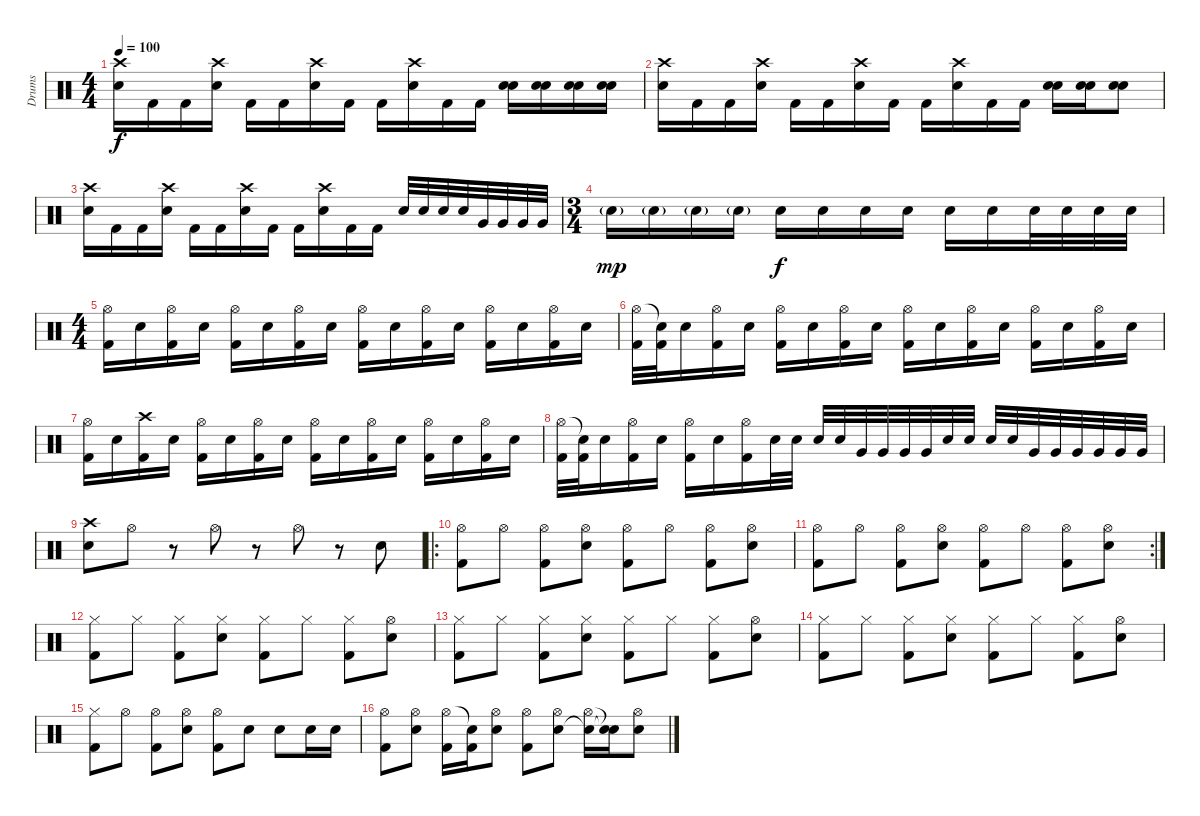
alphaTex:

\track ("Drums" "Drums") {instrument percussion}
\staff {score}
\articulation defaults
\ts (4 4)
\tempo 100
\clef neutral
\ks c
("Crash high (hit)" "Electric Snare (hit)").16{dy f} "Kick (hit) 2".16 "Kick (hit) 2".16 ("Crash high (hit)" "Electric Snare (hit)").16 "Kick (hit) 2".16 "Kick (hit) 2".16 ("Crash high (hit)" "Electric Snare (hit)").16 "Kick (hit) 2".16 "Kick (hit) 2".16 ("Crash high (hit)" "Electric Snare (hit)").16 "Kick (hit) 2".16 "Kick (hit) 2".16 ("Electric Snare (hit)" "Electric Snare (hit)").16 ("Electric Snare (hit)" "Electric Snare (hit)").16 ("Electric Snare (hit)" "Electric Snare (hit)").16 ("Electric Snare (hit)" "Electric Snare (hit)").16 |
("Crash high (hit)" "Electric Snare (hit)").16 "Kick (hit) 2".16 "Kick (hit) 2".16 ("Crash high (hit)" "Electric Snare (hit)").16 "Kick (hit) 2".16 "Kick (hit) 2".16 ("Crash high (hit)" "Electric Snare (hit)").16 "Kick (hit) 2".16 "Kick (hit) 2".16 ("Crash high (hit)" "Electric Snare (hit)").16 "Kick (hit) 2".16 "Kick (hit) 2".16 ("Electric Snare (hit)" "Electric Snare (hit)").16 ("Electric Snare (hit)" "Electric Snare (hit)").16 ("Electric Snare (hit)" "Electric Snare (hit)").8 |
("Crash high (hit)" "Electric Snare (hit)").16 "Kick (hit) 2".16 "Kick (hit) 2".16 ("Crash high (hit)" "Electric Snare (hit)").16 "Kick (hit) 2".16 "Kick (hit) 2".16 ("Crash high (hit)" "Electric Snare (hit)").16 "Kick (hit) 2".16 "Kick (hit) 2".16 ("Crash high (hit)" "Electric Snare (hit)").16 "Kick (hit) 2".16 "Kick (hit) 2".16 "Electric Snare (hit)".32 "Electric Snare (hit)".32 "Electric Snare (hit)".32 "Electric Snare (hit)".32 "Very Low Tom (hit)".32 "Very Low Tom (hit)".32 "Very Low Tom (hit)".32 "Very Low Tom (hit)".32 |
\ts (3 4)
"Electric Snare (hit)"{g}.16{dy mp} "Electric Snare (hit)"{g}.16 "Electric Snare (hit)"{g}.16 "Electric Snare (hit)"{g}.16 "Electric Snare (hit)".16{dy f} "Electric Snare (hit)".16 "Electric Snare (hit)".16 "Electric Snare (hit)".16 "Electric Snare (hit)".16 "Electric Snare (hit)".16 "Electric Snare (hit)".32 "Electric Snare (hit)".32 "Electric Snare (hit)".32 "Electric Snare (hit)".32 |
\ts (4 4)
("Hi-Hat (open)" "Kick (hit) 2").16 "Electric Snare (hit)".16 ("Hi-Hat (open)" "Kick (hit) 2").16 "Electric Snare (hit)".16 ("Hi-Hat (open)" "Kick (hit) 2").16 "Electric Snare (hit)".16 ("Hi-Hat (open)" "Kick (hit) 2").16 "Electric Snare (hit)".16 ("Hi-Hat (open)" "Kick (hit) 2").16 "Electric Snare (hit)".16 ("Hi-Hat (open)" "Kick (hit) 2").16 "Electric Snare (hit)".16 ("Hi-Hat (open)" "Kick (hit) 2").16 "Electric Snare (hit)".16 ("Hi-Hat (open)" "Kick (hit) 2").16 "Electric Snare (hit)".16 |
("Hi-Hat (open)" "Kick (hit) 2").32 ("Snare (hit)"{t} "Kick (hit) 2").32 "Electric Snare (hit)".16 ("Hi-Hat (open)" "Kick (hit) 2").16 "Electric Snare (hit)".16 ("Hi-Hat (open)" "Kick (hit) 2").16 "Electric Snare (hit)".16 ("Hi-Hat (open)" "Kick (hit) 2").16 "Electric Snare (hit)".16 ("Hi-Hat (open)" "Kick (hit) 2").16 "Electric Snare (hit)".16 ("Hi-Hat (open)" "Kick (hit) 2").16 "Electric Snare (hit)".16 ("Hi-Hat (open)" "Kick (hit) 2").16 "Electric Snare (hit)".16 ("Hi-Hat (open)" "Kick (hit) 2").16 "Electric Snare (hit)".16 |
("Hi-Hat (open)" "Kick (hit) 2").16 "Electric Snare (hit)".16 ("Crash high (hit)" "Kick (hit) 2").16 "Electric Snare (hit)".16 ("Hi-Hat (open)" "Kick (hit) 2").16 "Electric Snare (hit)".16 ("Hi-Hat (open)" "Kick (hit) 2").16 "Electric Snare (hit)".16 ("Hi-Hat (open)" "Kick (hit) 2").16 "Electric Snare (hit)".16 ("Hi-Hat (open)" "Kick (hit) 2").16 "Electric Snare (hit)".16 ("Hi-Hat (open)" "Kick (hit) 2").16 "Electric Snare (hit)".16 ("Hi-Hat (open)" "Kick (hit) 2").16 "Electric Snare (hit)".16 |
("Hi-Hat (open)" "Kick (hit) 2").32 ("Snare (hit)"{t} "Kick (hit) 2").32 "Electric Snare (hit)".16 ("Hi-Hat (open)" "Kick (hit) 2").16 "Electric Snare (hit)".16 ("Hi-Hat (open)" "Kick (hit) 2").16 "Electric Snare (hit)".16 ("Hi-Hat (open)" "Kick (hit) 2").16 "Electric Snare (hit)".32 "Electric Snare (hit)".32 "Electric Snare (hit)".32 "Electric Snare (hit)".32 "Very Low Tom (hit)".32 "Very Low Tom (hit)".32 "Very Low Tom (hit)".32 "Very Low Tom (hit)".32 "Electric Snare (hit)".32 "Electric Snare (hit)".32 "Electric Snare (hit)".32 "Electric Snare (hit)".32 "Very Low Tom (hit)".32 "Very Low Tom (hit)".32 "Very Low Tom (hit)".32 "Very Low Tom (hit)".32 "Very Low Tom (hit)".32 "Very Low Tom (hit)".32 |
("Crash high (hit)" "Electric Snare (hit)").8 "Hi-Hat (open)".8 r.8 "Hi-Hat (open)".8 r.8 "Hi-Hat (open)".8 r.8 "Electric Snare (hit)".8 |
\ro
("Hi-Hat (open)" "Kick (hit) 2").8 "Hi-Hat (open)".8 ("Hi-Hat (open)" "Kick (hit) 2").8 ("Hi-Hat (open)" "Electric Snare (hit)").8 ("Hi-Hat (open)" "Kick (hit) 2").8 "Hi-Hat (open)".8 ("Hi-Hat (open)" "Kick (hit) 2").8 ("Hi-Hat (open)" "Electric Snare (hit)").8 |
\rc 2
("Hi-Hat (open)" "Kick (hit) 2").8 "Hi-Hat (open)".8 ("Hi-Hat (open)" "Kick (hit) 2").8 ("Hi-Hat (open)" "Electric Snare (hit)").8 ("Hi-Hat (open)" "Kick (hit) 2").8 "Hi-Hat (open)".8 ("Hi-Hat (open)" "Kick (hit) 2").8 ("Hi-Hat (open)" "Electric Snare (hit)").8 |
("Hi-Hat (closed)" "Kick (hit) 2").8 "Hi-Hat (closed)".8 ("Hi-Hat (closed)" "Kick (hit) 2").8 ("Hi-Hat (closed)" "Electric Snare (hit)").8 ("Hi-Hat (closed)" "Kick (hit) 2").8 "Hi-Hat (closed)".8 ("Hi-Hat (closed)" "Kick (hit) 2").8 ("Hi-Hat (open)" "Electric Snare (hit)").8 |
("Hi-Hat (closed)" "Kick (hit) 2").8 "Hi-Hat (closed)".8 ("Hi-Hat (closed)" "Kick (hit) 2").8 ("Hi-Hat (closed)" "Electric Snare (hit)").8 ("Hi-Hat (closed)" "Kick (hit) 2").8 "Hi-Hat (closed)".8 ("Hi-Hat (closed)" "Kick (hit) 2").8 ("Hi-Hat (open)" "Electric Snare (hit)").8 |
("Hi-Hat (closed)" "Kick (hit) 2").8 "Hi-Hat (closed)".8 ("Hi-Hat (closed)" "Kick (hit) 2").8 ("Hi-Hat (closed)" "Electric Snare (hit)").8 ("Hi-Hat (closed)" "Kick (hit) 2").8 "Hi-Hat (closed)".8 ("Hi-Hat (closed)" "Kick (hit) 2").8 ("Hi-Hat (open)" "Electric Snare (hit)").8 |
("Hi-Hat (closed)" "Kick (hit) 2").8 "Hi-Hat (open)".8 ("Hi-Hat (open)" "Kick (hit) 2").8 ("Hi-Hat (open)" "Electric Snare (hit)").8 ("Hi-Hat (open)" "Kick (hit) 2").8 "Electric Snare (hit)".8 "Electric Snare (hit)".8 "Electric Snare (hit)".16 "Electric Snare (hit)".16 |
("Hi-Hat (open)" "Kick (hit) 2").8 ("Hi-Hat (open)" "Electric Snare (hit)").8 ("Hi-Hat (open)" "Kick (hit) 2").16 ("Snare (hit)"{t} "Kick (hit) 2").16 ("Hi-Hat (open)" "Electric Snare (hit)").8 ("Hi-Hat (open)" "Kick (hit) 2").8 ("Hi-Hat (open)" "Electric Snare (hit)").8 ("Hi-Hat (open)" "Snare (hit)"{t}).16 ("Snare (hit)"{t} "Snare (hit)"{t}).16 ("Hi-Hat (open)" "Electric Snare (hit)").8
